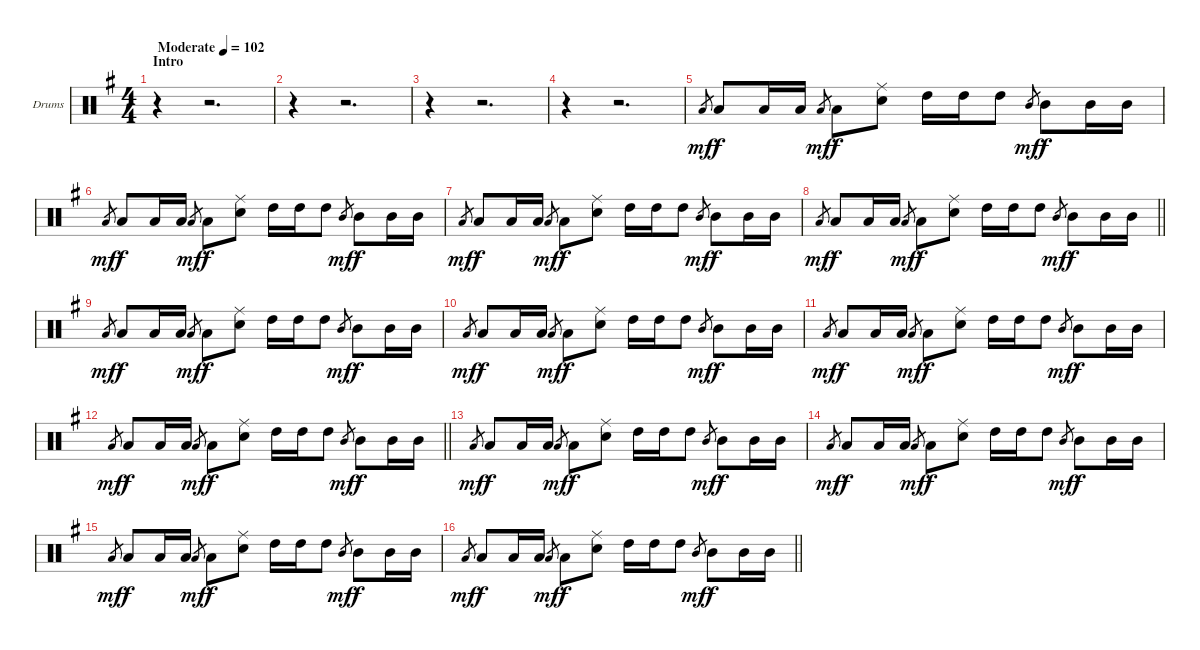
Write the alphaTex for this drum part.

\bracketExtendMode groupsimilarinstruments
\firstSystemTrackNameOrientation horizontal
\otherSystemsTrackNameOrientation horizontal
\track ("Drumkit" "Drums") {instrument percussion}
\staff {score}
\articulation defaults
\ts (4 4)
\beaming (8 2 2 2 2)
\section ("" "Intro")
\tempo (102 "Moderate")
\clef neutral
\ks g
r.4{dy mf} r.2{d} |
r.4 r.2{d} |
r.4 r.2{d} |
r.4 r.2{d} |
"Low Tom (hit)".8{gr} "Low Tom (hit)".8{dy f} "Low Tom (hit)".16 "Low Tom (hit)".16 "Low Tom (hit)".8{gr dy mf} "Low Tom (hit)".8{dy f} ("Ride (middle)" "Snare (hit) 2").8 "High Tom (hit)".16 "High Tom (hit)".16 "High Tom (hit)".8 "Mid Tom (hit)".8{gr dy mf} "Mid Tom (hit)".8{dy f} "Mid Tom (hit)".16 "Mid Tom (hit)".16 |
"Low Tom (hit)".8{gr dy mf} "Low Tom (hit)".8{dy f} "Low Tom (hit)".16 "Low Tom (hit)".16 "Low Tom (hit)".8{gr dy mf} "Low Tom (hit)".8{dy f} ("Ride (middle)" "Snare (hit) 2").8 "High Tom (hit)".16 "High Tom (hit)".16 "High Tom (hit)".8 "Mid Tom (hit)".8{gr dy mf} "Mid Tom (hit)".8{dy f} "Mid Tom (hit)".16 "Mid Tom (hit)".16 |
"Low Tom (hit)".8{gr dy mf} "Low Tom (hit)".8{dy f} "Low Tom (hit)".16 "Low Tom (hit)".16 "Low Tom (hit)".8{gr dy mf} "Low Tom (hit)".8{dy f} ("Ride (middle)" "Snare (hit) 2").8 "High Tom (hit)".16 "High Tom (hit)".16 "High Tom (hit)".8 "Mid Tom (hit)".8{gr dy mf} "Mid Tom (hit)".8{dy f} "Mid Tom (hit)".16 "Mid Tom (hit)".16 |
\barLineRight lightlight "Low Tom (hit)".8{gr dy mf} "Low Tom (hit)".8{dy f} "Low Tom (hit)".16 "Low Tom (hit)".16 "Low Tom (hit)".8{gr dy mf} "Low Tom (hit)".8{dy f}
("Ride (middle)" "Snare (hit) 2").8 "High Tom (hit)".16 "High Tom (hit)".16 "High Tom (hit)".8 "Mid Tom (hit)".8{gr dy mf} "Mid Tom (hit)".8{dy f} "Mid Tom (hit)".16 "Mid Tom (hit)".16 |
"Low Tom (hit)".8{gr dy mf} "Low Tom (hit)".8{dy f} "Low Tom (hit)".16 "Low Tom (hit)".16 "Low Tom (hit)".8{gr dy mf} "Low Tom (hit)".8{dy f} ("Ride (middle)" "Snare (hit) 2").8 "High Tom (hit)".16 "High Tom (hit)".16 "High Tom (hit)".8 "Mid Tom (hit)".8{gr dy mf} "Mid Tom (hit)".8{dy f} "Mid Tom (hit)".16 "Mid Tom (hit)".16 |
"Low Tom (hit)".8{gr dy mf} "Low Tom (hit)".8{dy f} "Low Tom (hit)".16 "Low Tom (hit)".16 "Low Tom (hit)".8{gr dy mf} "Low Tom (hit)".8{dy f} ("Ride (middle)" "Snare (hit) 2").8 "High Tom (hit)".16 "High Tom (hit)".16 "High Tom (hit)".8 "Mid Tom (hit)".8{gr dy mf} "Mid Tom (hit)".8{dy f} "Mid Tom (hit)".16 "Mid Tom (hit)".16 |
"Low Tom (hit)".8{gr dy mf} "Low Tom (hit)".8{dy f} "Low Tom (hit)".16 "Low Tom (hit)".16 "Low Tom (hit)".8{gr dy mf} "Low Tom (hit)".8{dy f} ("Ride (middle)" "Snare (hit) 2").8 "High Tom (hit)".16 "High Tom (hit)".16 "High Tom (hit)".8 "Mid Tom (hit)".8{gr dy mf} "Mid Tom (hit)".8{dy f} "Mid Tom (hit)".16 "Mid Tom (hit)".16 |
\barLineRight lightlight "Low Tom (hit)".8{gr dy mf} "Low Tom (hit)".8{dy f} "Low Tom (hit)".16 "Low Tom (hit)".16 "Low Tom (hit)".8{gr dy mf} "Low Tom (hit)".8{dy f}
("Ride (middle)" "Snare (hit) 2").8 "High Tom (hit)".16 "High Tom (hit)".16 "High Tom (hit)".8 "Mid Tom (hit)".8{gr dy mf} "Mid Tom (hit)".8{dy f} "Mid Tom (hit)".16 "Mid Tom (hit)".16 |
"Low Tom (hit)".8{gr dy mf} "Low Tom (hit)".8{dy f} "Low Tom (hit)".16 "Low Tom (hit)".16 "Low Tom (hit)".8{gr dy mf} "Low Tom (hit)".8{dy f} ("Ride (middle)" "Snare (hit) 2").8 "High Tom (hit)".16 "High Tom (hit)".16 "High Tom (hit)".8 "Mid Tom (hit)".8{gr dy mf} "Mid Tom (hit)".8{dy f} "Mid Tom (hit)".16 "Mid Tom (hit)".16 |
"Low Tom (hit)".8{gr dy mf} "Low Tom (hit)".8{dy f} "Low Tom (hit)".16 "Low Tom (hit)".16 "Low Tom (hit)".8{gr dy mf} "Low Tom (hit)".8{dy f} ("Ride (middle)" "Snare (hit) 2").8 "High Tom (hit)".16 "High Tom (hit)".16 "High Tom (hit)".8 "Mid Tom (hit)".8{gr dy mf} "Mid Tom (hit)".8{dy f} "Mid Tom (hit)".16 "Mid Tom (hit)".16 |
"Low Tom (hit)".8{gr dy mf} "Low Tom (hit)".8{dy f} "Low Tom (hit)".16 "Low Tom (hit)".16 "Low Tom (hit)".8{gr dy mf} "Low Tom (hit)".8{dy f} ("Ride (middle)" "Snare (hit) 2").8 "High Tom (hit)".16 "High Tom (hit)".16 "High Tom (hit)".8 "Mid Tom (hit)".8{gr dy mf} "Mid Tom (hit)".8{dy f} "Mid Tom (hit)".16 "Mid Tom (hit)".16 |
\barLineRight lightlight "Low Tom (hit)".8{gr dy mf} "Low Tom (hit)".8{dy f} "Low Tom (hit)".16 "Low Tom (hit)".16 "Low Tom (hit)".8{gr dy mf} "Low Tom (hit)".8{dy f}
("Ride (middle)" "Snare (hit) 2").8 "High Tom (hit)".16 "High Tom (hit)".16 "High Tom (hit)".8 "Mid Tom (hit)".8{gr dy mf} "Mid Tom (hit)".8{dy f} "Mid Tom (hit)".16 "Mid Tom (hit)".16
